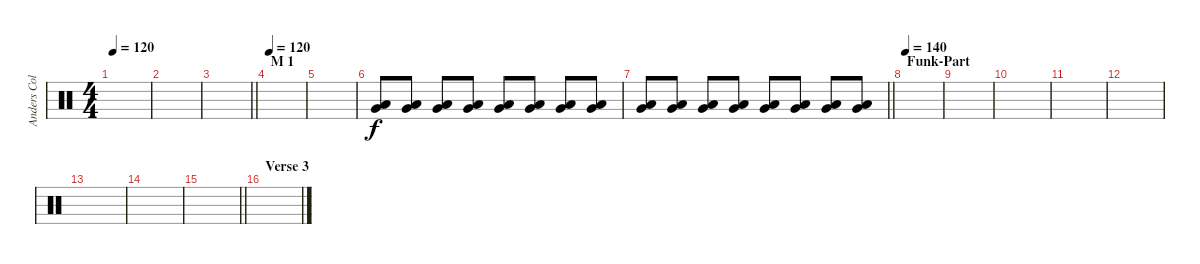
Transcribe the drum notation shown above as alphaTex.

\track ("Anders Colsefni" "Anders Col") {instrument percussion}
\staff {score}
\articulation defaults
\ts (4 4)
\tempo 120
\clef neutral
\ks c
|
|
\barLineRight lightlight
|
\section ("" "M 1")
\tempo 120
|
|
("Very Low Tom (hit)" "Low Floor Tom (hit)").8 ("Very Low Tom (hit)" "Low Floor Tom (hit)").8 ("Very Low Tom (hit)" "Low Floor Tom (hit)").8 ("Very Low Tom (hit)" "Low Floor Tom (hit)").8 ("Very Low Tom (hit)" "Low Floor Tom (hit)").8 ("Very Low Tom (hit)" "Low Floor Tom (hit)").8 ("Very Low Tom (hit)" "Low Floor Tom (hit)").8 ("Very Low Tom (hit)" "Low Floor Tom (hit)").8 |
\barLineRight lightlight
("Very Low Tom (hit)" "Low Floor Tom (hit)").8 ("Very Low Tom (hit)" "Low Floor Tom (hit)").8 ("Very Low Tom (hit)" "Low Floor Tom (hit)").8 ("Very Low Tom (hit)" "Low Floor Tom (hit)").8 ("Very Low Tom (hit)" "Low Floor Tom (hit)").8 ("Very Low Tom (hit)" "Low Floor Tom (hit)").8 ("Very Low Tom (hit)" "Low Floor Tom (hit)").8 ("Very Low Tom (hit)" "Low Floor Tom (hit)").8 |
\section ("" "Funk-Part")
\tempo 140
|
|
|
|
|
|
|
\barLineRight lightlight
|
\section ("" "Verse 3")
